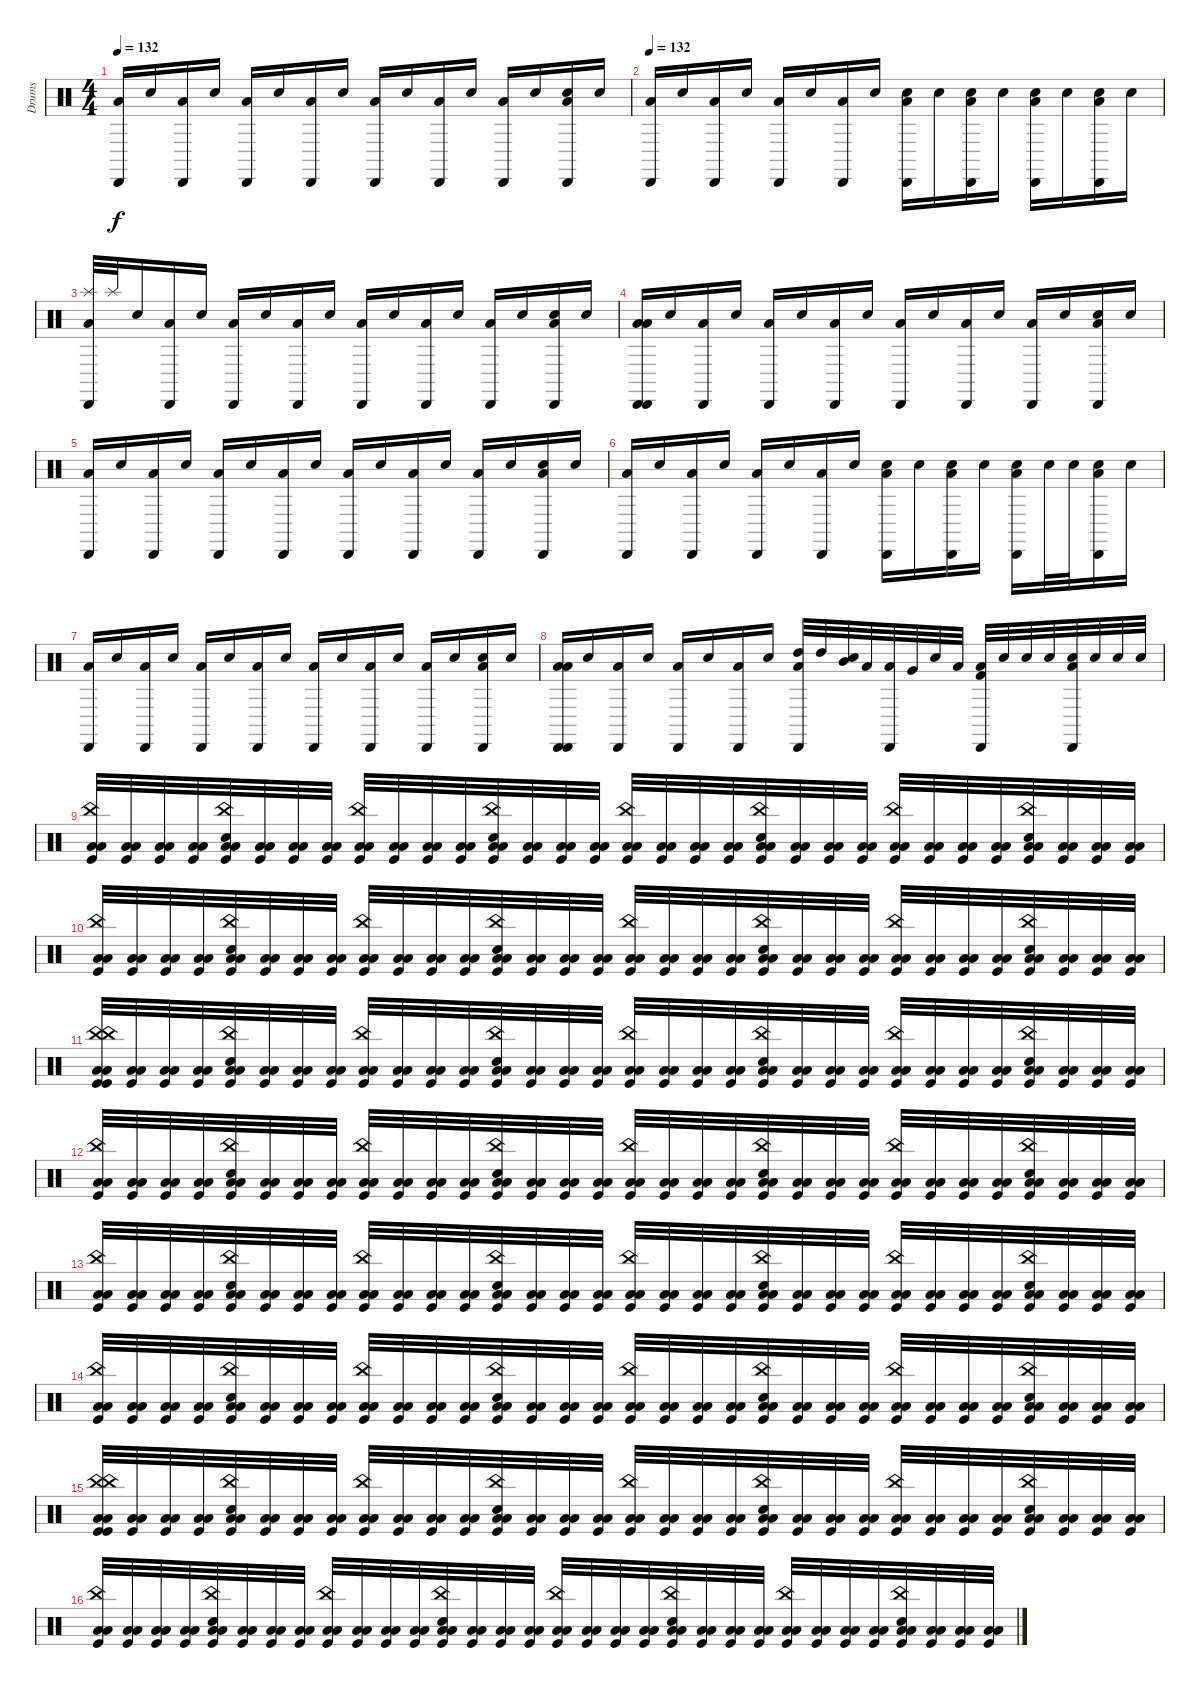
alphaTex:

\track ("Drums" "Drums") {instrument percussion}
\staff {score}
\articulation defaults
\ts (4 4)
\tempo 132
\clef neutral
\ks c
("Low Tom (hit)" "Cabasa (hit)").16{dy f} "Electric Snare (hit)".16 ("Low Tom (hit)" "Cabasa (hit)").16 "Electric Snare (hit)".16 ("Low Tom (hit)" "Cabasa (hit)").16 "Electric Snare (hit)".16 ("Low Tom (hit)" "Cabasa (hit)").16 "Electric Snare (hit)".16 ("Low Tom (hit)" "Cabasa (hit)").16 "Electric Snare (hit)".16 ("Low Tom (hit)" "Cabasa (hit)").16 "Electric Snare (hit)".16 ("Low Tom (hit)" "Cabasa (hit)").16 "Electric Snare (hit)".16 ("Low Tom (hit)" "Electric Snare (hit)" "Cabasa (hit)").16 "Electric Snare (hit)".16 |
\tempo 132
("Low Tom (hit)" "Cabasa (hit)").16 "Electric Snare (hit)".16 ("Low Tom (hit)" "Cabasa (hit)").16 "Electric Snare (hit)".16 ("Low Tom (hit)" "Cabasa (hit)").16 "Electric Snare (hit)".16 ("Low Tom (hit)" "Cabasa (hit)").16 "Electric Snare (hit)".16 ("Electric Snare (hit)" "Low Tom (hit)" "Cabasa (hit)").16 "Electric Snare (hit)".16 ("Electric Snare (hit)" "Low Tom (hit)" "Cabasa (hit)").16 "Electric Snare (hit)".16 ("Electric Snare (hit)" "Low Tom (hit)" "Cabasa (hit)").16 "Electric Snare (hit)".16 ("Low Tom (hit)" "Electric Snare (hit)" "Cabasa (hit)").16 "Electric Snare (hit)".16 |
("Splash (hit)" "Low Tom (hit)" "Cabasa (hit)").32 "Splash (hit)".32 "Electric Snare (hit)".16 ("Low Tom (hit)" "Cabasa (hit)").16 "Electric Snare (hit)".16 ("Low Tom (hit)" "Cabasa (hit)").16 "Electric Snare (hit)".16 ("Low Tom (hit)" "Cabasa (hit)").16 "Electric Snare (hit)".16 ("Low Tom (hit)" "Cabasa (hit)").16 "Electric Snare (hit)".16 ("Low Tom (hit)" "Cabasa (hit)").16 "Electric Snare (hit)".16 ("Low Tom (hit)" "Cabasa (hit)").16 "Electric Snare (hit)".16 ("Low Tom (hit)" "Electric Snare (hit)" "Cabasa (hit)").16 "Electric Snare (hit)".16 |
("Low Tom (hit)" "Cabasa (hit)" "Low Tom (hit)" "Cabasa (hit)").16 "Electric Snare (hit)".16 ("Low Tom (hit)" "Cabasa (hit)").16 "Electric Snare (hit)".16 ("Low Tom (hit)" "Cabasa (hit)").16 "Electric Snare (hit)".16 ("Low Tom (hit)" "Cabasa (hit)").16 "Electric Snare (hit)".16 ("Low Tom (hit)" "Cabasa (hit)").16 "Electric Snare (hit)".16 ("Low Tom (hit)" "Cabasa (hit)").16 "Electric Snare (hit)".16 ("Low Tom (hit)" "Cabasa (hit)").16 "Electric Snare (hit)".16 ("Low Tom (hit)" "Electric Snare (hit)" "Cabasa (hit)").16 "Electric Snare (hit)".16 |
("Low Tom (hit)" "Cabasa (hit)").16 "Electric Snare (hit)".16 ("Low Tom (hit)" "Cabasa (hit)").16 "Electric Snare (hit)".16 ("Low Tom (hit)" "Cabasa (hit)").16 "Electric Snare (hit)".16 ("Low Tom (hit)" "Cabasa (hit)").16 "Electric Snare (hit)".16 ("Low Tom (hit)" "Cabasa (hit)").16 "Electric Snare (hit)".16 ("Low Tom (hit)" "Cabasa (hit)").16 "Electric Snare (hit)".16 ("Low Tom (hit)" "Cabasa (hit)").16 "Electric Snare (hit)".16 ("Low Tom (hit)" "Electric Snare (hit)" "Cabasa (hit)").16 "Electric Snare (hit)".16 |
("Low Tom (hit)" "Cabasa (hit)").16 "Electric Snare (hit)".16 ("Low Tom (hit)" "Cabasa (hit)").16 "Electric Snare (hit)".16 ("Low Tom (hit)" "Cabasa (hit)").16 "Electric Snare (hit)".16 ("Low Tom (hit)" "Cabasa (hit)").16 "Electric Snare (hit)".16 ("Electric Snare (hit)" "Low Tom (hit)" "Cabasa (hit)").16 "Electric Snare (hit)".16 ("Electric Snare (hit)" "Low Tom (hit)" "Cabasa (hit)").16 "Electric Snare (hit)".16 ("Electric Snare (hit)" "Low Tom (hit)" "Cabasa (hit)").16 "Electric Snare (hit)".32 "Electric Snare (hit)".32 ("Low Tom (hit)" "Electric Snare (hit)" "Cabasa (hit)").16 "Electric Snare (hit)".16 |
("Low Tom (hit)" "Cabasa (hit)").16 "Electric Snare (hit)".16 ("Low Tom (hit)" "Cabasa (hit)").16 "Electric Snare (hit)".16 ("Low Tom (hit)" "Cabasa (hit)").16 "Electric Snare (hit)".16 ("Low Tom (hit)" "Cabasa (hit)").16 "Electric Snare (hit)".16 ("Low Tom (hit)" "Cabasa (hit)").16 "Electric Snare (hit)".16 ("Low Tom (hit)" "Cabasa (hit)").16 "Electric Snare (hit)".16 ("Low Tom (hit)" "Cabasa (hit)").16 "Electric Snare (hit)".16 ("Low Tom (hit)" "Electric Snare (hit)" "Cabasa (hit)").16 "Electric Snare (hit)".16 |
("Low Tom (hit)" "Cabasa (hit)" "Low Tom (hit)" "Cabasa (hit)").16 "Electric Snare (hit)".16 ("Low Tom (hit)" "Cabasa (hit)").16 "Electric Snare (hit)".16 ("Low Tom (hit)" "Cabasa (hit)").16 "Electric Snare (hit)".16 ("Low Tom (hit)" "Cabasa (hit)").16 "Electric Snare (hit)".16 ("High Tom (hit)" "Low Tom (hit)" "Cabasa (hit)").32 "High Tom (hit)".32 ("Mid Tom (hit)" "Electric Snare (hit)").32 "Low Tom (hit)".32 ("Low Tom (hit)" "Cabasa (hit)").32 "Very Low Tom (hit)".32 "Electric Snare (hit)".32 "Low Floor Tom (hit)".32 ("Kick (hit) 2" "Low Tom (hit)" "Cabasa (hit)").32 "Snare (hit) 2".32 "Electric Snare (hit)".32 "Snare (hit) 2".32 ("Low Tom (hit)" "Electric Snare (hit)" "Cabasa (hit)").32 "Electric Snare (hit)".32 "Electric Snare (hit)".32 "Electric Snare (hit)".32 |
("China (hit)" "Kick (hit)" "Low Floor Tom (hit)" "Low Tom (hit)").32{volume 16 balance 8} ("Kick (hit)" "Low Floor Tom (hit)" "Low Tom (hit)").32 ("Kick (hit)" "Low Floor Tom (hit)" "Low Tom (hit)").32 ("Kick (hit)" "Low Floor Tom (hit)" "Low Tom (hit)").32 ("Snare (hit) 2" "China (hit)" "Kick (hit)" "Low Floor Tom (hit)" "Low Tom (hit)").32 ("Kick (hit)" "Low Floor Tom (hit)" "Low Tom (hit)").32 ("Kick (hit)" "Low Floor Tom (hit)" "Low Tom (hit)").32 ("Kick (hit)" "Low Floor Tom (hit)" "Low Tom (hit)").32 ("China (hit)" "Kick (hit)" "Low Floor Tom (hit)" "Low Tom (hit)").32 ("Kick (hit)" "Low Floor Tom (hit)" "Low Tom (hit)").32 ("Kick (hit)" "Low Floor Tom (hit)" "Low Tom (hit)").32 ("Kick (hit)" "Low Floor Tom (hit)" "Low Tom (hit)").32 ("Snare (hit) 2" "China (hit)" "Kick (hit)" "Low Floor Tom (hit)" "Low Tom (hit)").32 ("Kick (hit)" "Low Floor Tom (hit)" "Low Tom (hit)").32 ("Kick (hit)" "Low Floor Tom (hit)" "Low Tom (hit)").32 ("Kick (hit)" "Low Floor Tom (hit)" "Low Tom (hit)").32 ("China (hit)" "Kick (hit)" "Low Floor Tom (hit)" "Low Tom (hit)").32 ("Kick (hit)" "Low Floor Tom (hit)" "Low Tom (hit)").32 ("Kick (hit)" "Low Floor Tom (hit)" "Low Tom (hit)").32 ("Kick (hit)" "Low Floor Tom (hit)" "Low Tom (hit)").32 ("Snare (hit) 2" "China (hit)" "Kick (hit)" "Low Floor Tom (hit)" "Low Tom (hit)").32 ("Kick (hit)" "Low Floor Tom (hit)" "Low Tom (hit)").32 ("Kick (hit)" "Low Floor Tom (hit)" "Low Tom (hit)").32 ("Kick (hit)" "Low Floor Tom (hit)" "Low Tom (hit)").32 ("China (hit)" "Kick (hit)" "Low Floor Tom (hit)" "Low Tom (hit)").32 ("Kick (hit)" "Low Floor Tom (hit)" "Low Tom (hit)").32 ("Kick (hit)" "Low Floor Tom (hit)" "Low Tom (hit)").32 ("Kick (hit)" "Low Floor Tom (hit)" "Low Tom (hit)").32 ("Snare (hit) 2" "China (hit)" "Kick (hit)" "Low Floor Tom (hit)" "Low Tom (hit)").32 ("Kick (hit)" "Low Floor Tom (hit)" "Low Tom (hit)").32 ("Kick (hit)" "Low Floor Tom (hit)" "Low Tom (hit)").32 ("Kick (hit)" "Low Floor Tom (hit)" "Low Tom (hit)").32 |
("China (hit)" "Kick (hit)" "Low Floor Tom (hit)" "Low Tom (hit)").32 ("Kick (hit)" "Low Floor Tom (hit)" "Low Tom (hit)").32 ("Kick (hit)" "Low Floor Tom (hit)" "Low Tom (hit)").32 ("Kick (hit)" "Low Floor Tom (hit)" "Low Tom (hit)").32 ("Snare (hit) 2" "China (hit)" "Kick (hit)" "Low Floor Tom (hit)" "Low Tom (hit)").32 ("Kick (hit)" "Low Floor Tom (hit)" "Low Tom (hit)").32 ("Kick (hit)" "Low Floor Tom (hit)" "Low Tom (hit)").32 ("Kick (hit)" "Low Floor Tom (hit)" "Low Tom (hit)").32 ("China (hit)" "Kick (hit)" "Low Floor Tom (hit)" "Low Tom (hit)").32 ("Kick (hit)" "Low Floor Tom (hit)" "Low Tom (hit)").32 ("Kick (hit)" "Low Floor Tom (hit)" "Low Tom (hit)").32 ("Kick (hit)" "Low Floor Tom (hit)" "Low Tom (hit)").32 ("Snare (hit) 2" "China (hit)" "Kick (hit)" "Low Floor Tom (hit)" "Low Tom (hit)").32 ("Kick (hit)" "Low Floor Tom (hit)" "Low Tom (hit)").32 ("Kick (hit)" "Low Floor Tom (hit)" "Low Tom (hit)").32 ("Kick (hit)" "Low Floor Tom (hit)" "Low Tom (hit)").32 ("China (hit)" "Kick (hit)" "Low Floor Tom (hit)" "Low Tom (hit)").32 ("Kick (hit)" "Low Floor Tom (hit)" "Low Tom (hit)").32 ("Kick (hit)" "Low Floor Tom (hit)" "Low Tom (hit)").32 ("Kick (hit)" "Low Floor Tom (hit)" "Low Tom (hit)").32 ("Snare (hit) 2" "China (hit)" "Kick (hit)" "Low Floor Tom (hit)" "Low Tom (hit)").32 ("Kick (hit)" "Low Floor Tom (hit)" "Low Tom (hit)").32 ("Kick (hit)" "Low Floor Tom (hit)" "Low Tom (hit)").32 ("Kick (hit)" "Low Floor Tom (hit)" "Low Tom (hit)").32 ("China (hit)" "Kick (hit)" "Low Floor Tom (hit)" "Low Tom (hit)").32 ("Kick (hit)" "Low Floor Tom (hit)" "Low Tom (hit)").32 ("Kick (hit)" "Low Floor Tom (hit)" "Low Tom (hit)").32 ("Kick (hit)" "Low Floor Tom (hit)" "Low Tom (hit)").32 ("Snare (hit) 2" "China (hit)" "Kick (hit)" "Low Floor Tom (hit)" "Low Tom (hit)").32 ("Kick (hit)" "Low Floor Tom (hit)" "Low Tom (hit)").32 ("Kick (hit)" "Low Floor Tom (hit)" "Low Tom (hit)").32 ("Kick (hit)" "Low Floor Tom (hit)" "Low Tom (hit)").32 |
("China (hit)" "Kick (hit)" "Low Floor Tom (hit)" "Low Tom (hit)" "China (hit)" "Kick (hit)").32 ("Kick (hit)" "Low Floor Tom (hit)" "Low Tom (hit)").32 ("Kick (hit)" "Low Floor Tom (hit)" "Low Tom (hit)").32 ("Kick (hit)" "Low Floor Tom (hit)" "Low Tom (hit)").32 ("Snare (hit) 2" "China (hit)" "Kick (hit)" "Low Floor Tom (hit)" "Low Tom (hit)").32 ("Kick (hit)" "Low Floor Tom (hit)" "Low Tom (hit)").32 ("Kick (hit)" "Low Floor Tom (hit)" "Low Tom (hit)").32 ("Kick (hit)" "Low Floor Tom (hit)" "Low Tom (hit)").32 ("China (hit)" "Kick (hit)" "Low Floor Tom (hit)" "Low Tom (hit)").32 ("Kick (hit)" "Low Floor Tom (hit)" "Low Tom (hit)").32 ("Kick (hit)" "Low Floor Tom (hit)" "Low Tom (hit)").32 ("Kick (hit)" "Low Floor Tom (hit)" "Low Tom (hit)").32 ("Snare (hit) 2" "China (hit)" "Kick (hit)" "Low Floor Tom (hit)" "Low Tom (hit)").32 ("Kick (hit)" "Low Floor Tom (hit)" "Low Tom (hit)").32 ("Kick (hit)" "Low Floor Tom (hit)" "Low Tom (hit)").32 ("Kick (hit)" "Low Floor Tom (hit)" "Low Tom (hit)").32 ("China (hit)" "Kick (hit)" "Low Floor Tom (hit)" "Low Tom (hit)").32 ("Kick (hit)" "Low Floor Tom (hit)" "Low Tom (hit)").32 ("Kick (hit)" "Low Floor Tom (hit)" "Low Tom (hit)").32 ("Kick (hit)" "Low Floor Tom (hit)" "Low Tom (hit)").32 ("Snare (hit) 2" "China (hit)" "Kick (hit)" "Low Floor Tom (hit)" "Low Tom (hit)").32 ("Kick (hit)" "Low Floor Tom (hit)" "Low Tom (hit)").32 ("Kick (hit)" "Low Floor Tom (hit)" "Low Tom (hit)").32 ("Kick (hit)" "Low Floor Tom (hit)" "Low Tom (hit)").32 ("China (hit)" "Kick (hit)" "Low Floor Tom (hit)" "Low Tom (hit)").32 ("Kick (hit)" "Low Floor Tom (hit)" "Low Tom (hit)").32 ("Kick (hit)" "Low Floor Tom (hit)" "Low Tom (hit)").32 ("Kick (hit)" "Low Floor Tom (hit)" "Low Tom (hit)").32 ("Snare (hit) 2" "China (hit)" "Kick (hit)" "Low Floor Tom (hit)" "Low Tom (hit)").32 ("Kick (hit)" "Low Floor Tom (hit)" "Low Tom (hit)").32 ("Kick (hit)" "Low Floor Tom (hit)" "Low Tom (hit)").32 ("Kick (hit)" "Low Floor Tom (hit)" "Low Tom (hit)").32 |
("China (hit)" "Kick (hit)" "Low Floor Tom (hit)" "Low Tom (hit)").32 ("Kick (hit)" "Low Floor Tom (hit)" "Low Tom (hit)").32 ("Kick (hit)" "Low Floor Tom (hit)" "Low Tom (hit)").32 ("Kick (hit)" "Low Floor Tom (hit)" "Low Tom (hit)").32 ("Snare (hit) 2" "China (hit)" "Kick (hit)" "Low Floor Tom (hit)" "Low Tom (hit)").32 ("Kick (hit)" "Low Floor Tom (hit)" "Low Tom (hit)").32 ("Kick (hit)" "Low Floor Tom (hit)" "Low Tom (hit)").32 ("Kick (hit)" "Low Floor Tom (hit)" "Low Tom (hit)").32 ("China (hit)" "Kick (hit)" "Low Floor Tom (hit)" "Low Tom (hit)").32 ("Kick (hit)" "Low Floor Tom (hit)" "Low Tom (hit)").32 ("Kick (hit)" "Low Floor Tom (hit)" "Low Tom (hit)").32 ("Kick (hit)" "Low Floor Tom (hit)" "Low Tom (hit)").32 ("Snare (hit) 2" "China (hit)" "Kick (hit)" "Low Floor Tom (hit)" "Low Tom (hit)").32 ("Kick (hit)" "Low Floor Tom (hit)" "Low Tom (hit)").32 ("Kick (hit)" "Low Floor Tom (hit)" "Low Tom (hit)").32 ("Kick (hit)" "Low Floor Tom (hit)" "Low Tom (hit)").32 ("China (hit)" "Kick (hit)" "Low Floor Tom (hit)" "Low Tom (hit)").32 ("Kick (hit)" "Low Floor Tom (hit)" "Low Tom (hit)").32 ("Kick (hit)" "Low Floor Tom (hit)" "Low Tom (hit)").32 ("Kick (hit)" "Low Floor Tom (hit)" "Low Tom (hit)").32 ("Snare (hit) 2" "China (hit)" "Kick (hit)" "Low Floor Tom (hit)" "Low Tom (hit)").32 ("Kick (hit)" "Low Floor Tom (hit)" "Low Tom (hit)").32 ("Kick (hit)" "Low Floor Tom (hit)" "Low Tom (hit)").32 ("Kick (hit)" "Low Floor Tom (hit)" "Low Tom (hit)").32 ("China (hit)" "Kick (hit)" "Low Floor Tom (hit)" "Low Tom (hit)").32 ("Kick (hit)" "Low Floor Tom (hit)" "Low Tom (hit)").32 ("Kick (hit)" "Low Floor Tom (hit)" "Low Tom (hit)").32 ("Kick (hit)" "Low Floor Tom (hit)" "Low Tom (hit)").32 ("Snare (hit) 2" "China (hit)" "Kick (hit)" "Low Floor Tom (hit)" "Low Tom (hit)").32 ("Kick (hit)" "Low Floor Tom (hit)" "Low Tom (hit)").32 ("Kick (hit)" "Low Floor Tom (hit)" "Low Tom (hit)").32 ("Kick (hit)" "Low Floor Tom (hit)" "Low Tom (hit)").32 |
("China (hit)" "Kick (hit)" "Low Floor Tom (hit)" "Low Tom (hit)").32 ("Kick (hit)" "Low Floor Tom (hit)" "Low Tom (hit)").32 ("Kick (hit)" "Low Floor Tom (hit)" "Low Tom (hit)").32 ("Kick (hit)" "Low Floor Tom (hit)" "Low Tom (hit)").32 ("Snare (hit) 2" "China (hit)" "Kick (hit)" "Low Floor Tom (hit)" "Low Tom (hit)").32 ("Kick (hit)" "Low Floor Tom (hit)" "Low Tom (hit)").32 ("Kick (hit)" "Low Floor Tom (hit)" "Low Tom (hit)").32 ("Kick (hit)" "Low Floor Tom (hit)" "Low Tom (hit)").32 ("China (hit)" "Kick (hit)" "Low Floor Tom (hit)" "Low Tom (hit)").32 ("Kick (hit)" "Low Floor Tom (hit)" "Low Tom (hit)").32 ("Kick (hit)" "Low Floor Tom (hit)" "Low Tom (hit)").32 ("Kick (hit)" "Low Floor Tom (hit)" "Low Tom (hit)").32 ("Snare (hit) 2" "China (hit)" "Kick (hit)" "Low Floor Tom (hit)" "Low Tom (hit)").32 ("Kick (hit)" "Low Floor Tom (hit)" "Low Tom (hit)").32 ("Kick (hit)" "Low Floor Tom (hit)" "Low Tom (hit)").32 ("Kick (hit)" "Low Floor Tom (hit)" "Low Tom (hit)").32 ("China (hit)" "Kick (hit)" "Low Floor Tom (hit)" "Low Tom (hit)").32 ("Kick (hit)" "Low Floor Tom (hit)" "Low Tom (hit)").32 ("Kick (hit)" "Low Floor Tom (hit)" "Low Tom (hit)").32 ("Kick (hit)" "Low Floor Tom (hit)" "Low Tom (hit)").32 ("Snare (hit) 2" "China (hit)" "Kick (hit)" "Low Floor Tom (hit)" "Low Tom (hit)").32 ("Kick (hit)" "Low Floor Tom (hit)" "Low Tom (hit)").32 ("Kick (hit)" "Low Floor Tom (hit)" "Low Tom (hit)").32 ("Kick (hit)" "Low Floor Tom (hit)" "Low Tom (hit)").32 ("China (hit)" "Kick (hit)" "Low Floor Tom (hit)" "Low Tom (hit)").32 ("Kick (hit)" "Low Floor Tom (hit)" "Low Tom (hit)").32 ("Kick (hit)" "Low Floor Tom (hit)" "Low Tom (hit)").32 ("Kick (hit)" "Low Floor Tom (hit)" "Low Tom (hit)").32 ("Snare (hit) 2" "China (hit)" "Kick (hit)" "Low Floor Tom (hit)" "Low Tom (hit)").32 ("Kick (hit)" "Low Floor Tom (hit)" "Low Tom (hit)").32 ("Kick (hit)" "Low Floor Tom (hit)" "Low Tom (hit)").32 ("Kick (hit)" "Low Floor Tom (hit)" "Low Tom (hit)").32 |
("China (hit)" "Kick (hit)" "Low Floor Tom (hit)" "Low Tom (hit)").32 ("Kick (hit)" "Low Floor Tom (hit)" "Low Tom (hit)").32 ("Kick (hit)" "Low Floor Tom (hit)" "Low Tom (hit)").32 ("Kick (hit)" "Low Floor Tom (hit)" "Low Tom (hit)").32 ("Snare (hit) 2" "China (hit)" "Kick (hit)" "Low Floor Tom (hit)" "Low Tom (hit)").32 ("Kick (hit)" "Low Floor Tom (hit)" "Low Tom (hit)").32 ("Kick (hit)" "Low Floor Tom (hit)" "Low Tom (hit)").32 ("Kick (hit)" "Low Floor Tom (hit)" "Low Tom (hit)").32 ("China (hit)" "Kick (hit)" "Low Floor Tom (hit)" "Low Tom (hit)").32 ("Kick (hit)" "Low Floor Tom (hit)" "Low Tom (hit)").32 ("Kick (hit)" "Low Floor Tom (hit)" "Low Tom (hit)").32 ("Kick (hit)" "Low Floor Tom (hit)" "Low Tom (hit)").32 ("Snare (hit) 2" "China (hit)" "Kick (hit)" "Low Floor Tom (hit)" "Low Tom (hit)").32 ("Kick (hit)" "Low Floor Tom (hit)" "Low Tom (hit)").32 ("Kick (hit)" "Low Floor Tom (hit)" "Low Tom (hit)").32 ("Kick (hit)" "Low Floor Tom (hit)" "Low Tom (hit)").32 ("China (hit)" "Kick (hit)" "Low Floor Tom (hit)" "Low Tom (hit)").32 ("Kick (hit)" "Low Floor Tom (hit)" "Low Tom (hit)").32 ("Kick (hit)" "Low Floor Tom (hit)" "Low Tom (hit)").32 ("Kick (hit)" "Low Floor Tom (hit)" "Low Tom (hit)").32 ("Snare (hit) 2" "China (hit)" "Kick (hit)" "Low Floor Tom (hit)" "Low Tom (hit)").32 ("Kick (hit)" "Low Floor Tom (hit)" "Low Tom (hit)").32 ("Kick (hit)" "Low Floor Tom (hit)" "Low Tom (hit)").32 ("Kick (hit)" "Low Floor Tom (hit)" "Low Tom (hit)").32 ("China (hit)" "Kick (hit)" "Low Floor Tom (hit)" "Low Tom (hit)").32 ("Kick (hit)" "Low Floor Tom (hit)" "Low Tom (hit)").32 ("Kick (hit)" "Low Floor Tom (hit)" "Low Tom (hit)").32 ("Kick (hit)" "Low Floor Tom (hit)" "Low Tom (hit)").32 ("Snare (hit) 2" "China (hit)" "Kick (hit)" "Low Floor Tom (hit)" "Low Tom (hit)").32 ("Kick (hit)" "Low Floor Tom (hit)" "Low Tom (hit)").32 ("Kick (hit)" "Low Floor Tom (hit)" "Low Tom (hit)").32 ("Kick (hit)" "Low Floor Tom (hit)" "Low Tom (hit)").32 |
("China (hit)" "Kick (hit)" "Low Floor Tom (hit)" "Low Tom (hit)" "China (hit)" "Kick (hit)").32 ("Kick (hit)" "Low Floor Tom (hit)" "Low Tom (hit)").32 ("Kick (hit)" "Low Floor Tom (hit)" "Low Tom (hit)").32 ("Kick (hit)" "Low Floor Tom (hit)" "Low Tom (hit)").32 ("Snare (hit) 2" "China (hit)" "Kick (hit)" "Low Floor Tom (hit)" "Low Tom (hit)").32 ("Kick (hit)" "Low Floor Tom (hit)" "Low Tom (hit)").32 ("Kick (hit)" "Low Floor Tom (hit)" "Low Tom (hit)").32 ("Kick (hit)" "Low Floor Tom (hit)" "Low Tom (hit)").32 ("China (hit)" "Kick (hit)" "Low Floor Tom (hit)" "Low Tom (hit)").32 ("Kick (hit)" "Low Floor Tom (hit)" "Low Tom (hit)").32 ("Kick (hit)" "Low Floor Tom (hit)" "Low Tom (hit)").32 ("Kick (hit)" "Low Floor Tom (hit)" "Low Tom (hit)").32 ("Snare (hit) 2" "China (hit)" "Kick (hit)" "Low Floor Tom (hit)" "Low Tom (hit)").32 ("Kick (hit)" "Low Floor Tom (hit)" "Low Tom (hit)").32 ("Kick (hit)" "Low Floor Tom (hit)" "Low Tom (hit)").32 ("Kick (hit)" "Low Floor Tom (hit)" "Low Tom (hit)").32 ("China (hit)" "Kick (hit)" "Low Floor Tom (hit)" "Low Tom (hit)").32 ("Kick (hit)" "Low Floor Tom (hit)" "Low Tom (hit)").32 ("Kick (hit)" "Low Floor Tom (hit)" "Low Tom (hit)").32 ("Kick (hit)" "Low Floor Tom (hit)" "Low Tom (hit)").32 ("Snare (hit) 2" "China (hit)" "Kick (hit)" "Low Floor Tom (hit)" "Low Tom (hit)").32 ("Kick (hit)" "Low Floor Tom (hit)" "Low Tom (hit)").32 ("Kick (hit)" "Low Floor Tom (hit)" "Low Tom (hit)").32 ("Kick (hit)" "Low Floor Tom (hit)" "Low Tom (hit)").32 ("China (hit)" "Kick (hit)" "Low Floor Tom (hit)" "Low Tom (hit)").32 ("Kick (hit)" "Low Floor Tom (hit)" "Low Tom (hit)").32 ("Kick (hit)" "Low Floor Tom (hit)" "Low Tom (hit)").32 ("Kick (hit)" "Low Floor Tom (hit)" "Low Tom (hit)").32 ("Snare (hit) 2" "China (hit)" "Kick (hit)" "Low Floor Tom (hit)" "Low Tom (hit)").32 ("Kick (hit)" "Low Floor Tom (hit)" "Low Tom (hit)").32 ("Kick (hit)" "Low Floor Tom (hit)" "Low Tom (hit)").32 ("Kick (hit)" "Low Floor Tom (hit)" "Low Tom (hit)").32 |
("China (hit)" "Kick (hit)" "Low Floor Tom (hit)" "Low Tom (hit)").32 ("Kick (hit)" "Low Floor Tom (hit)" "Low Tom (hit)").32 ("Kick (hit)" "Low Floor Tom (hit)" "Low Tom (hit)").32 ("Kick (hit)" "Low Floor Tom (hit)" "Low Tom (hit)").32 ("Snare (hit) 2" "China (hit)" "Kick (hit)" "Low Floor Tom (hit)" "Low Tom (hit)").32 ("Kick (hit)" "Low Floor Tom (hit)" "Low Tom (hit)").32 ("Kick (hit)" "Low Floor Tom (hit)" "Low Tom (hit)").32 ("Kick (hit)" "Low Floor Tom (hit)" "Low Tom (hit)").32 ("China (hit)" "Kick (hit)" "Low Floor Tom (hit)" "Low Tom (hit)").32 ("Kick (hit)" "Low Floor Tom (hit)" "Low Tom (hit)").32 ("Kick (hit)" "Low Floor Tom (hit)" "Low Tom (hit)").32 ("Kick (hit)" "Low Floor Tom (hit)" "Low Tom (hit)").32 ("Snare (hit) 2" "China (hit)" "Kick (hit)" "Low Floor Tom (hit)" "Low Tom (hit)").32 ("Kick (hit)" "Low Floor Tom (hit)" "Low Tom (hit)").32 ("Kick (hit)" "Low Floor Tom (hit)" "Low Tom (hit)").32 ("Kick (hit)" "Low Floor Tom (hit)" "Low Tom (hit)").32 ("China (hit)" "Kick (hit)" "Low Floor Tom (hit)" "Low Tom (hit)").32 ("Kick (hit)" "Low Floor Tom (hit)" "Low Tom (hit)").32 ("Kick (hit)" "Low Floor Tom (hit)" "Low Tom (hit)").32 ("Kick (hit)" "Low Floor Tom (hit)" "Low Tom (hit)").32 ("Snare (hit) 2" "China (hit)" "Kick (hit)" "Low Floor Tom (hit)" "Low Tom (hit)").32 ("Kick (hit)" "Low Floor Tom (hit)" "Low Tom (hit)").32 ("Kick (hit)" "Low Floor Tom (hit)" "Low Tom (hit)").32 ("Kick (hit)" "Low Floor Tom (hit)" "Low Tom (hit)").32 ("China (hit)" "Kick (hit)" "Low Floor Tom (hit)" "Low Tom (hit)").32 ("Kick (hit)" "Low Floor Tom (hit)" "Low Tom (hit)").32 ("Kick (hit)" "Low Floor Tom (hit)" "Low Tom (hit)").32 ("Kick (hit)" "Low Floor Tom (hit)" "Low Tom (hit)").32 ("Snare (hit) 2" "China (hit)" "Kick (hit)" "Low Floor Tom (hit)" "Low Tom (hit)").32 ("Kick (hit)" "Low Floor Tom (hit)" "Low Tom (hit)").32 ("Kick (hit)" "Low Floor Tom (hit)" "Low Tom (hit)").32 ("Kick (hit)" "Low Floor Tom (hit)" "Low Tom (hit)").32
